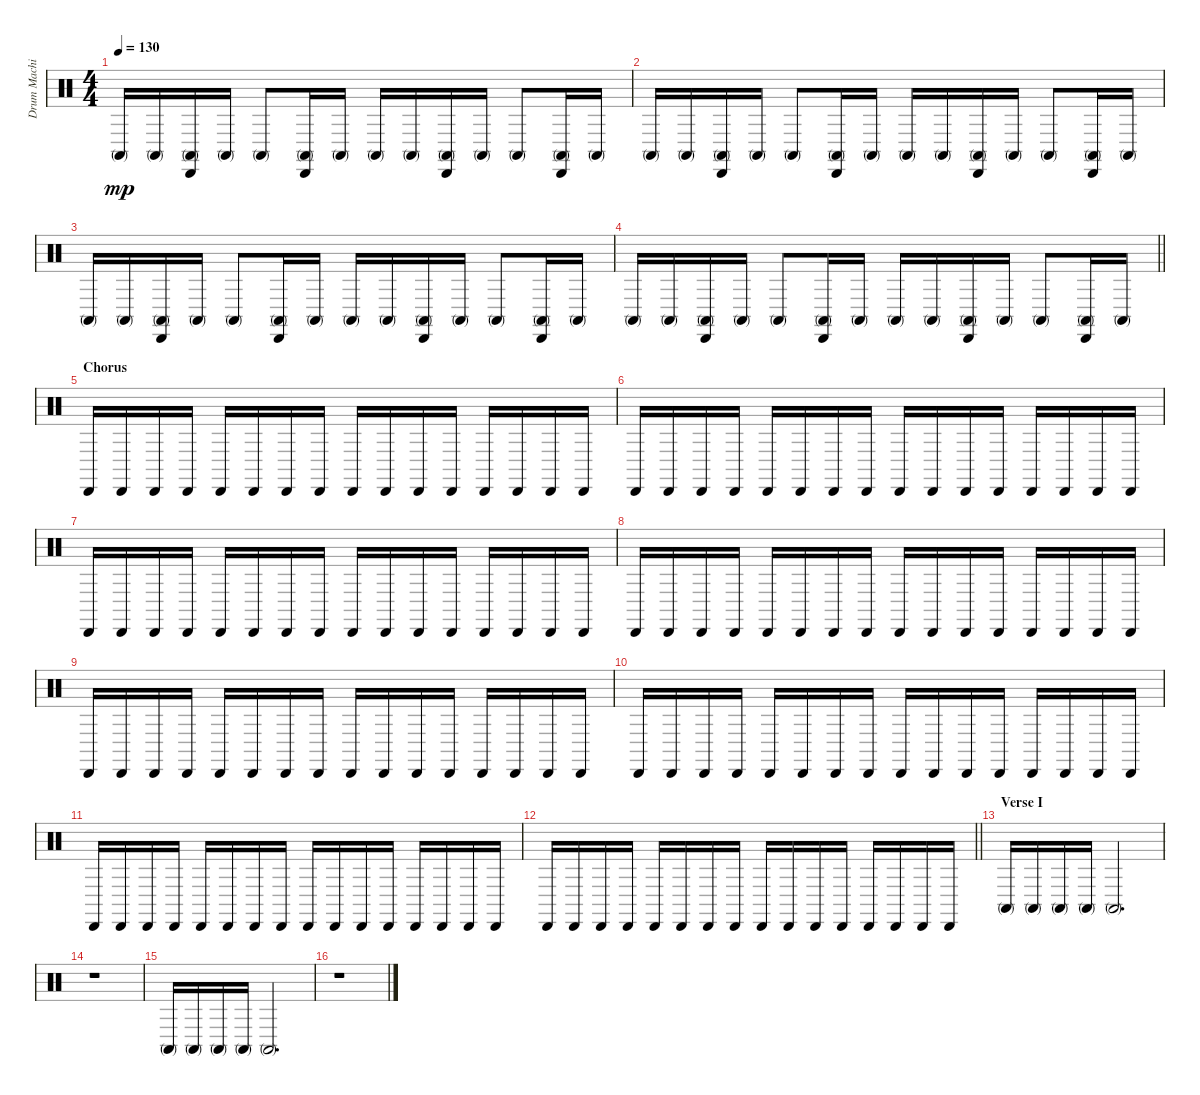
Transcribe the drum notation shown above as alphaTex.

\track ("Drum Machine" "Drum Machi") {instrument percussion}
\staff {score}
\articulation defaults
\ts (4 4)
\tempo 130
\clef neutral
\ks c "Conga high (mute)".16{dy mp} "Conga high (mute)".16
("Cabasa (hit)" "Conga high (mute)").16 "Conga high (mute)".16 "Conga high (mute)".8 ("Cabasa (hit)" "Conga high (mute)").16 "Conga high (mute)".16 "Conga high (mute)".16 "Conga high (mute)".16 ("Cabasa (hit)" "Conga high (mute)").16 "Conga high (mute)".16 "Conga high (mute)".8 ("Cabasa (hit)" "Conga high (mute)").16 "Conga high (mute)".16 |
"Conga high (mute)".16 "Conga high (mute)".16 ("Cabasa (hit)" "Conga high (mute)").16 "Conga high (mute)".16 "Conga high (mute)".8 ("Cabasa (hit)" "Conga high (mute)").16 "Conga high (mute)".16 "Conga high (mute)".16 "Conga high (mute)".16 ("Cabasa (hit)" "Conga high (mute)").16 "Conga high (mute)".16 "Conga high (mute)".8 ("Cabasa (hit)" "Conga high (mute)").16 "Conga high (mute)".16 |
"Conga high (mute)".16 "Conga high (mute)".16 ("Cabasa (hit)" "Conga high (mute)").16 "Conga high (mute)".16 "Conga high (mute)".8 ("Cabasa (hit)" "Conga high (mute)").16 "Conga high (mute)".16 "Conga high (mute)".16 "Conga high (mute)".16 ("Cabasa (hit)" "Conga high (mute)").16 "Conga high (mute)".16 "Conga high (mute)".8 ("Cabasa (hit)" "Conga high (mute)").16 "Conga high (mute)".16 |
\barLineRight lightlight "Conga high (mute)".16 "Conga high (mute)".16
("Cabasa (hit)" "Conga high (mute)").16 "Conga high (mute)".16 "Conga high (mute)".8 ("Cabasa (hit)" "Conga high (mute)").16 "Conga high (mute)".16 "Conga high (mute)".16 "Conga high (mute)".16 ("Cabasa (hit)" "Conga high (mute)").16 "Conga high (mute)".16 "Conga high (mute)".8 ("Cabasa (hit)" "Conga high (mute)").16 "Conga high (mute)".16 |
\section ("" "Chorus")
"Cabasa (hit)".16 "Cabasa (hit)".16 "Cabasa (hit)".16 "Cabasa (hit)".16 "Cabasa (hit)".16 "Cabasa (hit)".16 "Cabasa (hit)".16 "Cabasa (hit)".16 "Cabasa (hit)".16 "Cabasa (hit)".16 "Cabasa (hit)".16 "Cabasa (hit)".16 "Cabasa (hit)".16 "Cabasa (hit)".16 "Cabasa (hit)".16 "Cabasa (hit)".16 |
"Cabasa (hit)".16 "Cabasa (hit)".16 "Cabasa (hit)".16 "Cabasa (hit)".16 "Cabasa (hit)".16 "Cabasa (hit)".16 "Cabasa (hit)".16 "Cabasa (hit)".16 "Cabasa (hit)".16 "Cabasa (hit)".16 "Cabasa (hit)".16 "Cabasa (hit)".16 "Cabasa (hit)".16 "Cabasa (hit)".16 "Cabasa (hit)".16 "Cabasa (hit)".16 |
"Cabasa (hit)".16 "Cabasa (hit)".16 "Cabasa (hit)".16 "Cabasa (hit)".16 "Cabasa (hit)".16 "Cabasa (hit)".16 "Cabasa (hit)".16 "Cabasa (hit)".16 "Cabasa (hit)".16 "Cabasa (hit)".16 "Cabasa (hit)".16 "Cabasa (hit)".16 "Cabasa (hit)".16 "Cabasa (hit)".16 "Cabasa (hit)".16 "Cabasa (hit)".16 |
"Cabasa (hit)".16 "Cabasa (hit)".16 "Cabasa (hit)".16 "Cabasa (hit)".16 "Cabasa (hit)".16 "Cabasa (hit)".16 "Cabasa (hit)".16 "Cabasa (hit)".16 "Cabasa (hit)".16 "Cabasa (hit)".16 "Cabasa (hit)".16 "Cabasa (hit)".16 "Cabasa (hit)".16 "Cabasa (hit)".16 "Cabasa (hit)".16 "Cabasa (hit)".16 |
"Cabasa (hit)".16 "Cabasa (hit)".16 "Cabasa (hit)".16 "Cabasa (hit)".16 "Cabasa (hit)".16 "Cabasa (hit)".16 "Cabasa (hit)".16 "Cabasa (hit)".16 "Cabasa (hit)".16 "Cabasa (hit)".16 "Cabasa (hit)".16 "Cabasa (hit)".16 "Cabasa (hit)".16 "Cabasa (hit)".16 "Cabasa (hit)".16 "Cabasa (hit)".16 |
"Cabasa (hit)".16 "Cabasa (hit)".16 "Cabasa (hit)".16 "Cabasa (hit)".16 "Cabasa (hit)".16 "Cabasa (hit)".16 "Cabasa (hit)".16 "Cabasa (hit)".16 "Cabasa (hit)".16 "Cabasa (hit)".16 "Cabasa (hit)".16 "Cabasa (hit)".16 "Cabasa (hit)".16 "Cabasa (hit)".16 "Cabasa (hit)".16 "Cabasa (hit)".16 |
"Cabasa (hit)".16 "Cabasa (hit)".16 "Cabasa (hit)".16 "Cabasa (hit)".16 "Cabasa (hit)".16 "Cabasa (hit)".16 "Cabasa (hit)".16 "Cabasa (hit)".16 "Cabasa (hit)".16 "Cabasa (hit)".16 "Cabasa (hit)".16 "Cabasa (hit)".16 "Cabasa (hit)".16 "Cabasa (hit)".16 "Cabasa (hit)".16 "Cabasa (hit)".16 |
\barLineRight lightlight "Cabasa (hit)".16 "Cabasa (hit)".16 "Cabasa (hit)".16 "Cabasa (hit)".16 "Cabasa (hit)".16 "Cabasa (hit)".16 "Cabasa (hit)".16 "Cabasa (hit)".16 "Cabasa (hit)".16 "Cabasa (hit)".16 "Cabasa (hit)".16 "Cabasa (hit)".16 "Cabasa (hit)".16 "Cabasa (hit)".16 "Cabasa (hit)".16 "Cabasa (hit)".16
|
\section ("" "Verse I")
"Conga high (mute)".16 "Conga high (mute)".16 "Conga high (mute)".16 "Conga high (mute)".16 "Conga high (mute)".2{d} |
r.1 |
"Conga high (mute)".16 "Conga high (mute)".16 "Conga high (mute)".16 "Conga high (mute)".16 "Conga high (mute)".2{d} |
r.1
